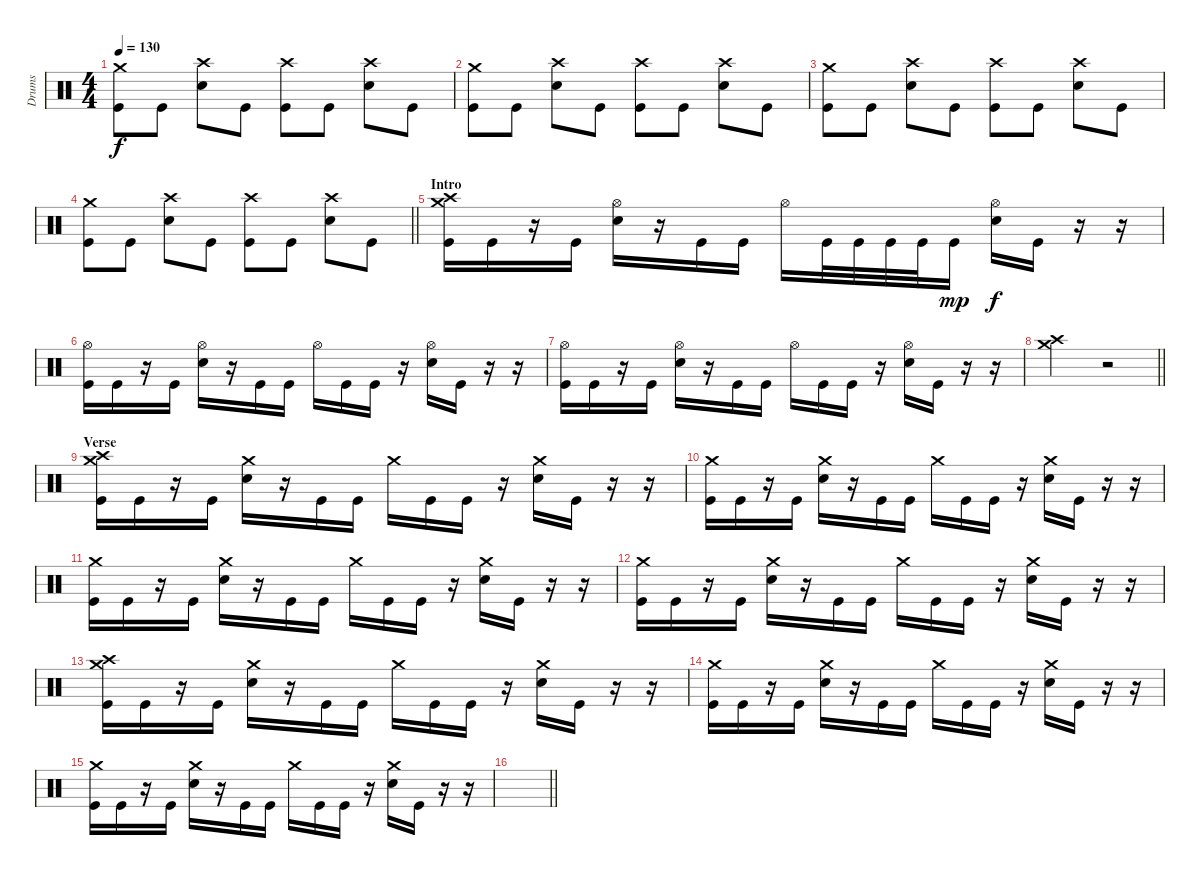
\track ("Drums" "Drums") {instrument percussion}
\staff {score}
\articulation defaults
\ts (4 4)
\tempo 130
\clef neutral
\ks c
("Kick (hit)" "Crash medium (hit)").8{dy f} "Kick (hit)".8 ("Snare (hit) 2" "Crash high (hit)").8 "Kick (hit)".8 ("Kick (hit)" "Crash high (hit)").8 "Kick (hit)".8 ("Snare (hit) 2" "Crash high (hit)").8 "Kick (hit)".8 |
("Kick (hit)" "Crash medium (hit)").8 "Kick (hit)".8 ("Snare (hit) 2" "Crash high (hit)").8 "Kick (hit)".8 ("Kick (hit)" "Crash high (hit)").8 "Kick (hit)".8 ("Snare (hit) 2" "Crash high (hit)").8 "Kick (hit)".8 |
("Kick (hit)" "Crash medium (hit)").8 "Kick (hit)".8 ("Snare (hit) 2" "Crash high (hit)").8 "Kick (hit)".8 ("Kick (hit)" "Crash high (hit)").8 "Kick (hit)".8 ("Snare (hit) 2" "Crash high (hit)").8 "Kick (hit)".8 |
\barLineRight lightlight
("Kick (hit)" "Crash medium (hit)").8 "Kick (hit)".8 ("Snare (hit) 2" "Crash high (hit)").8 "Kick (hit)".8 ("Kick (hit)" "Crash high (hit)").8 "Kick (hit)".8 ("Snare (hit) 2" "Crash high (hit)").8 "Kick (hit)".8 |
\section ("" "Intro")
("Kick (hit)" "Crash high (hit)" "Crash medium (hit)").16 "Kick (hit)".16 r.16 "Kick (hit)".16 ("Snare (hit) 2" "Hi-Hat (open)").16 r.16 "Kick (hit)".16 "Kick (hit)".16 "Hi-Hat (open)".16 "Kick (hit)".32 "Kick (hit)".32 "Kick (hit)".32 "Kick (hit)".32 "Kick (hit)".16{dy mp} ("Snare (hit) 2" "Hi-Hat (open)").16{dy f} "Kick (hit)".16 r.16 r.16 |
("Kick (hit)" "Hi-Hat (open)").16 "Kick (hit)".16 r.16 "Kick (hit)".16 ("Snare (hit) 2" "Hi-Hat (open)").16 r.16 "Kick (hit)".16 "Kick (hit)".16 "Hi-Hat (open)".16 "Kick (hit)".16 "Kick (hit)".16 r.16 ("Snare (hit) 2" "Hi-Hat (open)").16 "Kick (hit)".16 r.16 r.16 |
("Kick (hit)" "Hi-Hat (open)").16 "Kick (hit)".16 r.16 "Kick (hit)".16 ("Snare (hit) 2" "Hi-Hat (open)").16 r.16 "Kick (hit)".16 "Kick (hit)".16 "Hi-Hat (open)".16 "Kick (hit)".16 "Kick (hit)".16 r.16 ("Snare (hit) 2" "Hi-Hat (open)").16 "Kick (hit)".16 r.16 r.16{volume 0} |
\barLineRight lightlight
("Crash high (hit)" "Crash medium (hit)").2{volume 13} r.2 |
\section ("" "Verse")
("Kick (hit)" "Crash high (hit)" "Crash medium (hit)").16 "Kick (hit)".16 r.16 "Kick (hit)".16 ("Snare (hit) 2" "Crash medium (hit)").16 r.16 "Kick (hit)".16 "Kick (hit)".16 "Crash medium (hit)".16 "Kick (hit)".16 "Kick (hit)".16 r.16 ("Snare (hit) 2" "Crash medium (hit)").16 "Kick (hit)".16 r.16 r.16 |
("Kick (hit)" "Crash medium (hit)").16 "Kick (hit)".16 r.16 "Kick (hit)".16 ("Snare (hit) 2" "Crash medium (hit)").16 r.16 "Kick (hit)".16 "Kick (hit)".16 "Crash medium (hit)".16 "Kick (hit)".16 "Kick (hit)".16 r.16 ("Snare (hit) 2" "Crash medium (hit)").16 "Kick (hit)".16 r.16 r.16 |
("Kick (hit)" "Crash medium (hit)").16 "Kick (hit)".16 r.16 "Kick (hit)".16 ("Snare (hit) 2" "Crash medium (hit)").16 r.16 "Kick (hit)".16 "Kick (hit)".16 "Crash medium (hit)".16 "Kick (hit)".16 "Kick (hit)".16 r.16 ("Snare (hit) 2" "Crash medium (hit)").16 "Kick (hit)".16 r.16 r.16 |
("Kick (hit)" "Crash medium (hit)").16 "Kick (hit)".16 r.16 "Kick (hit)".16 ("Snare (hit) 2" "Crash medium (hit)").16 r.16 "Kick (hit)".16 "Kick (hit)".16 "Crash medium (hit)".16 "Kick (hit)".16 "Kick (hit)".16 r.16 ("Snare (hit) 2" "Crash medium (hit)").16 "Kick (hit)".16 r.16 r.16 |
("Kick (hit)" "Crash high (hit)" "Crash medium (hit)").16 "Kick (hit)".16 r.16 "Kick (hit)".16 ("Snare (hit) 2" "Crash medium (hit)").16 r.16 "Kick (hit)".16 "Kick (hit)".16 "Crash medium (hit)".16 "Kick (hit)".16 "Kick (hit)".16 r.16 ("Snare (hit) 2" "Crash medium (hit)").16 "Kick (hit)".16 r.16 r.16 |
("Kick (hit)" "Crash medium (hit)").16 "Kick (hit)".16 r.16 "Kick (hit)".16 ("Snare (hit) 2" "Crash medium (hit)").16 r.16 "Kick (hit)".16 "Kick (hit)".16 "Crash medium (hit)".16 "Kick (hit)".16 "Kick (hit)".16 r.16 ("Snare (hit) 2" "Crash medium (hit)").16 "Kick (hit)".16 r.16 r.16 |
("Kick (hit)" "Crash medium (hit)").16 "Kick (hit)".16 r.16 "Kick (hit)".16 ("Snare (hit) 2" "Crash medium (hit)").16 r.16 "Kick (hit)".16 "Kick (hit)".16 "Crash medium (hit)".16 "Kick (hit)".16 "Kick (hit)".16 r.16 ("Snare (hit) 2" "Crash medium (hit)").16 "Kick (hit)".16 r.16 r.16 |
\barLineRight lightlight
